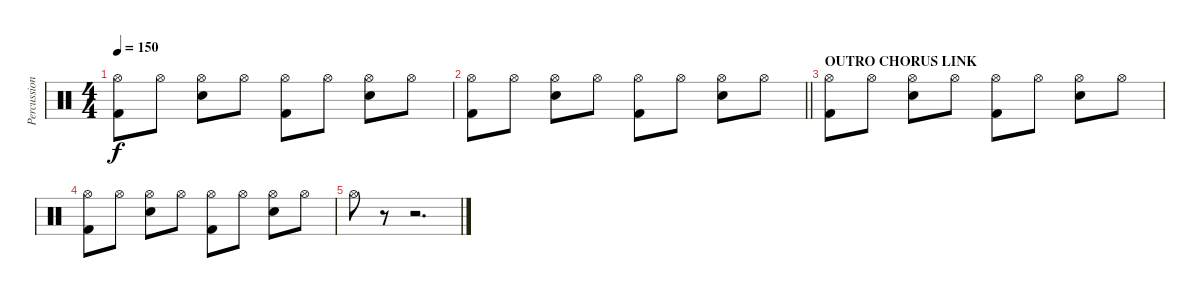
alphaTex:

\track ("Percussion" "Percussion") {solo instrument percussion}
\staff {score}
\articulation defaults
\ts (4 4)
\tempo 150
\clef neutral
\ks c
("Hi-Hat (open)" "Kick (hit) 2").8{dy f} "Hi-Hat (open)".8 ("Hi-Hat (open)" "Snare (hit) 2").8 "Hi-Hat (open)".8 ("Hi-Hat (open)" "Kick (hit) 2").8 "Hi-Hat (open)".8 ("Hi-Hat (open)" "Snare (hit) 2").8 "Hi-Hat (open)".8 |
\barLineRight lightlight
("Hi-Hat (open)" "Kick (hit) 2").8 "Hi-Hat (open)".8 ("Hi-Hat (open)" "Snare (hit) 2").8 "Hi-Hat (open)".8 ("Hi-Hat (open)" "Kick (hit) 2").8 "Hi-Hat (open)".8 ("Hi-Hat (open)" "Snare (hit) 2").8 "Hi-Hat (open)".8 |
\section ("" "OUTRO CHORUS LINK")
("Hi-Hat (open)" "Kick (hit) 2").8 "Hi-Hat (open)".8 ("Hi-Hat (open)" "Snare (hit) 2").8 "Hi-Hat (open)".8 ("Hi-Hat (open)" "Kick (hit) 2").8 "Hi-Hat (open)".8 ("Hi-Hat (open)" "Snare (hit) 2").8 "Hi-Hat (open)".8 |
("Hi-Hat (open)" "Kick (hit) 2").8 "Hi-Hat (open)".8 ("Hi-Hat (open)" "Snare (hit) 2").8 "Hi-Hat (open)".8 ("Hi-Hat (open)" "Kick (hit) 2").8 "Hi-Hat (open)".8 ("Hi-Hat (open)" "Snare (hit) 2").8 "Hi-Hat (open)".8 |
"Hi-Hat (open)".8 r.8 r.2{d}
